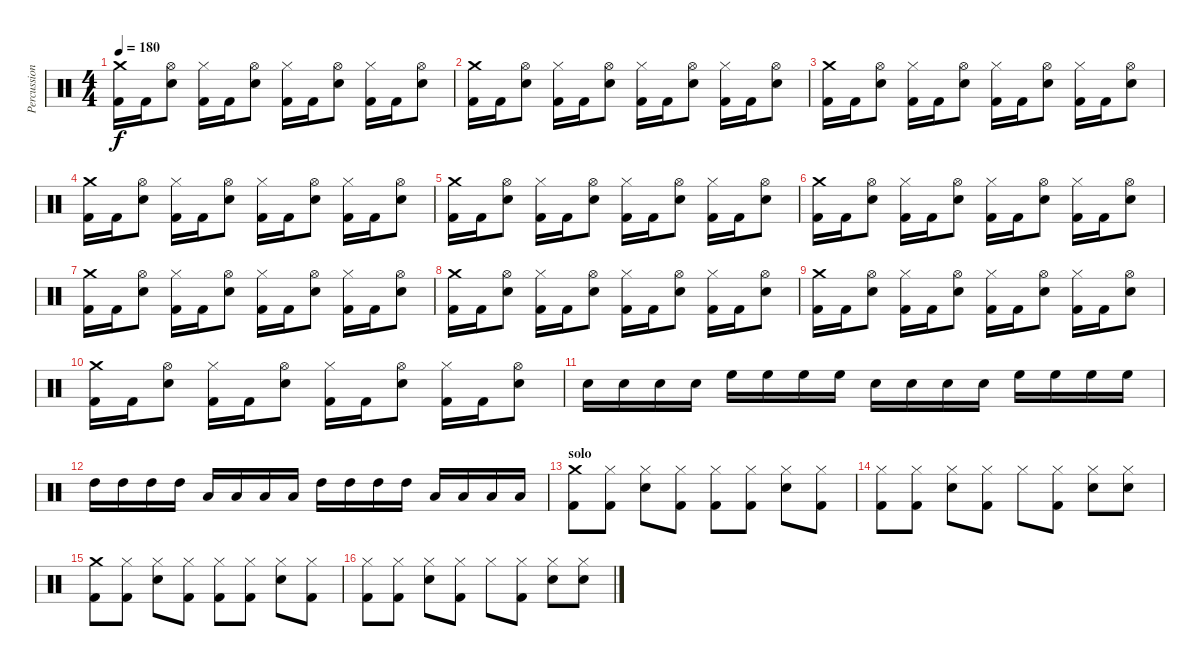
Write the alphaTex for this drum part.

\track ("Percussion" "Percussion") {instrument percussion}
\staff {score}
\articulation defaults
\ts (4 4)
\tempo 180
\clef neutral
\ks c
("Crash medium (hit)" "Kick (hit) 2").16{dy f} "Kick (hit) 2".16 ("Hi-Hat (open)" "Electric Snare (hit)").8 ("Hi-Hat (closed)" "Kick (hit) 2").16 "Kick (hit) 2".16 ("Hi-Hat (open)" "Electric Snare (hit)").8 ("Hi-Hat (closed)" "Kick (hit) 2").16 "Kick (hit) 2".16 ("Hi-Hat (open)" "Electric Snare (hit)").8 ("Hi-Hat (closed)" "Kick (hit) 2").16 "Kick (hit) 2".16 ("Hi-Hat (open)" "Electric Snare (hit)").8 |
("Crash medium (hit)" "Kick (hit) 2").16 "Kick (hit) 2".16 ("Hi-Hat (open)" "Electric Snare (hit)").8 ("Hi-Hat (closed)" "Kick (hit) 2").16 "Kick (hit) 2".16 ("Hi-Hat (open)" "Electric Snare (hit)").8 ("Hi-Hat (closed)" "Kick (hit) 2").16 "Kick (hit) 2".16 ("Hi-Hat (open)" "Electric Snare (hit)").8 ("Hi-Hat (closed)" "Kick (hit) 2").16 "Kick (hit) 2".16 ("Hi-Hat (open)" "Electric Snare (hit)").8 |
("Crash medium (hit)" "Kick (hit) 2").16 "Kick (hit) 2".16 ("Hi-Hat (open)" "Electric Snare (hit)").8 ("Hi-Hat (closed)" "Kick (hit) 2").16 "Kick (hit) 2".16 ("Hi-Hat (open)" "Electric Snare (hit)").8 ("Hi-Hat (closed)" "Kick (hit) 2").16 "Kick (hit) 2".16 ("Hi-Hat (open)" "Electric Snare (hit)").8 ("Hi-Hat (closed)" "Kick (hit) 2").16 "Kick (hit) 2".16 ("Hi-Hat (open)" "Electric Snare (hit)").8 |
("Crash medium (hit)" "Kick (hit) 2").16 "Kick (hit) 2".16 ("Hi-Hat (open)" "Electric Snare (hit)").8 ("Hi-Hat (closed)" "Kick (hit) 2").16 "Kick (hit) 2".16 ("Hi-Hat (open)" "Electric Snare (hit)").8 ("Hi-Hat (closed)" "Kick (hit) 2").16 "Kick (hit) 2".16 ("Hi-Hat (open)" "Electric Snare (hit)").8 ("Hi-Hat (closed)" "Kick (hit) 2").16 "Kick (hit) 2".16 ("Hi-Hat (open)" "Electric Snare (hit)").8 |
("Crash medium (hit)" "Kick (hit) 2").16 "Kick (hit) 2".16 ("Hi-Hat (open)" "Electric Snare (hit)").8 ("Hi-Hat (closed)" "Kick (hit) 2").16 "Kick (hit) 2".16 ("Hi-Hat (open)" "Electric Snare (hit)").8 ("Hi-Hat (closed)" "Kick (hit) 2").16 "Kick (hit) 2".16 ("Hi-Hat (open)" "Electric Snare (hit)").8 ("Hi-Hat (closed)" "Kick (hit) 2").16 "Kick (hit) 2".16 ("Hi-Hat (open)" "Electric Snare (hit)").8 |
("Crash medium (hit)" "Kick (hit) 2").16 "Kick (hit) 2".16 ("Hi-Hat (open)" "Electric Snare (hit)").8 ("Hi-Hat (closed)" "Kick (hit) 2").16 "Kick (hit) 2".16 ("Hi-Hat (open)" "Electric Snare (hit)").8 ("Hi-Hat (closed)" "Kick (hit) 2").16 "Kick (hit) 2".16 ("Hi-Hat (open)" "Electric Snare (hit)").8 ("Hi-Hat (closed)" "Kick (hit) 2").16 "Kick (hit) 2".16 ("Hi-Hat (open)" "Electric Snare (hit)").8 |
("Crash medium (hit)" "Kick (hit) 2").16 "Kick (hit) 2".16 ("Hi-Hat (open)" "Electric Snare (hit)").8 ("Hi-Hat (closed)" "Kick (hit) 2").16 "Kick (hit) 2".16 ("Hi-Hat (open)" "Electric Snare (hit)").8 ("Hi-Hat (closed)" "Kick (hit) 2").16 "Kick (hit) 2".16 ("Hi-Hat (open)" "Electric Snare (hit)").8 ("Hi-Hat (closed)" "Kick (hit) 2").16 "Kick (hit) 2".16 ("Hi-Hat (open)" "Electric Snare (hit)").8 |
("Crash medium (hit)" "Kick (hit) 2").16 "Kick (hit) 2".16 ("Hi-Hat (open)" "Electric Snare (hit)").8 ("Hi-Hat (closed)" "Kick (hit) 2").16 "Kick (hit) 2".16 ("Hi-Hat (open)" "Electric Snare (hit)").8 ("Hi-Hat (closed)" "Kick (hit) 2").16 "Kick (hit) 2".16 ("Hi-Hat (open)" "Electric Snare (hit)").8 ("Hi-Hat (closed)" "Kick (hit) 2").16 "Kick (hit) 2".16 ("Hi-Hat (open)" "Electric Snare (hit)").8 |
("Crash medium (hit)" "Kick (hit) 2").16 "Kick (hit) 2".16 ("Hi-Hat (open)" "Electric Snare (hit)").8 ("Hi-Hat (closed)" "Kick (hit) 2").16 "Kick (hit) 2".16 ("Hi-Hat (open)" "Electric Snare (hit)").8 ("Hi-Hat (closed)" "Kick (hit) 2").16 "Kick (hit) 2".16 ("Hi-Hat (open)" "Electric Snare (hit)").8 ("Hi-Hat (closed)" "Kick (hit) 2").16 "Kick (hit) 2".16 ("Hi-Hat (open)" "Electric Snare (hit)").8 |
("Crash medium (hit)" "Kick (hit) 2").16 "Kick (hit) 2".16 ("Hi-Hat (open)" "Electric Snare (hit)").8 ("Hi-Hat (closed)" "Kick (hit) 2").16 "Kick (hit) 2".16 ("Hi-Hat (open)" "Electric Snare (hit)").8 ("Hi-Hat (closed)" "Kick (hit) 2").16 "Kick (hit) 2".16 ("Hi-Hat (open)" "Electric Snare (hit)").8 ("Hi-Hat (closed)" "Kick (hit) 2").16 "Kick (hit) 2".16 ("Hi-Hat (open)" "Electric Snare (hit)").8 |
"Electric Snare (hit)".16 "Electric Snare (hit)".16 "Electric Snare (hit)".16 "Electric Snare (hit)".16 "High Floor Tom (hit)".16 "High Floor Tom (hit)".16 "High Floor Tom (hit)".16 "High Floor Tom (hit)".16 "Electric Snare (hit)".16 "Electric Snare (hit)".16 "Electric Snare (hit)".16 "Electric Snare (hit)".16 "High Floor Tom (hit)".16 "High Floor Tom (hit)".16 "High Floor Tom (hit)".16 "High Floor Tom (hit)".16 |
"High Tom (hit)".16 "High Tom (hit)".16 "High Tom (hit)".16 "High Tom (hit)".16 "Low Tom (hit)".16 "Low Tom (hit)".16 "Low Tom (hit)".16 "Low Tom (hit)".16 "High Tom (hit)".16 "High Tom (hit)".16 "High Tom (hit)".16 "High Tom (hit)".16 "Low Tom (hit)".16 "Low Tom (hit)".16 "Low Tom (hit)".16 "Low Tom (hit)".16 |
\section ("" "solo")
("Crash medium (hit)" "Kick (hit) 2").8 ("Hi-Hat (closed)" "Kick (hit) 2").8 ("Hi-Hat (closed)" "Electric Snare (hit)").8 ("Hi-Hat (closed)" "Kick (hit) 2").8 ("Hi-Hat (closed)" "Kick (hit) 2").8 ("Hi-Hat (closed)" "Kick (hit) 2").8 ("Hi-Hat (closed)" "Electric Snare (hit)").8 ("Hi-Hat (closed)" "Kick (hit) 2").8 |
("Hi-Hat (closed)" "Kick (hit) 2").8 ("Hi-Hat (closed)" "Kick (hit) 2").8 ("Hi-Hat (closed)" "Electric Snare (hit)").8 ("Hi-Hat (closed)" "Kick (hit) 2").8 "Hi-Hat (closed)".8 ("Hi-Hat (closed)" "Kick (hit) 2").8 ("Hi-Hat (closed)" "Electric Snare (hit)").8 ("Hi-Hat (closed)" "Electric Snare (hit)").8 |
("Crash medium (hit)" "Kick (hit) 2").8 ("Hi-Hat (closed)" "Kick (hit) 2").8 ("Hi-Hat (closed)" "Electric Snare (hit)").8 ("Hi-Hat (closed)" "Kick (hit) 2").8 ("Hi-Hat (closed)" "Kick (hit) 2").8 ("Hi-Hat (closed)" "Kick (hit) 2").8 ("Hi-Hat (closed)" "Electric Snare (hit)").8 ("Hi-Hat (closed)" "Kick (hit) 2").8 |
("Hi-Hat (closed)" "Kick (hit) 2").8 ("Hi-Hat (closed)" "Kick (hit) 2").8 ("Hi-Hat (closed)" "Electric Snare (hit)").8 ("Hi-Hat (closed)" "Kick (hit) 2").8 "Hi-Hat (closed)".8 ("Hi-Hat (closed)" "Kick (hit) 2").8 ("Hi-Hat (closed)" "Electric Snare (hit)").8 ("Hi-Hat (closed)" "Electric Snare (hit)").8
